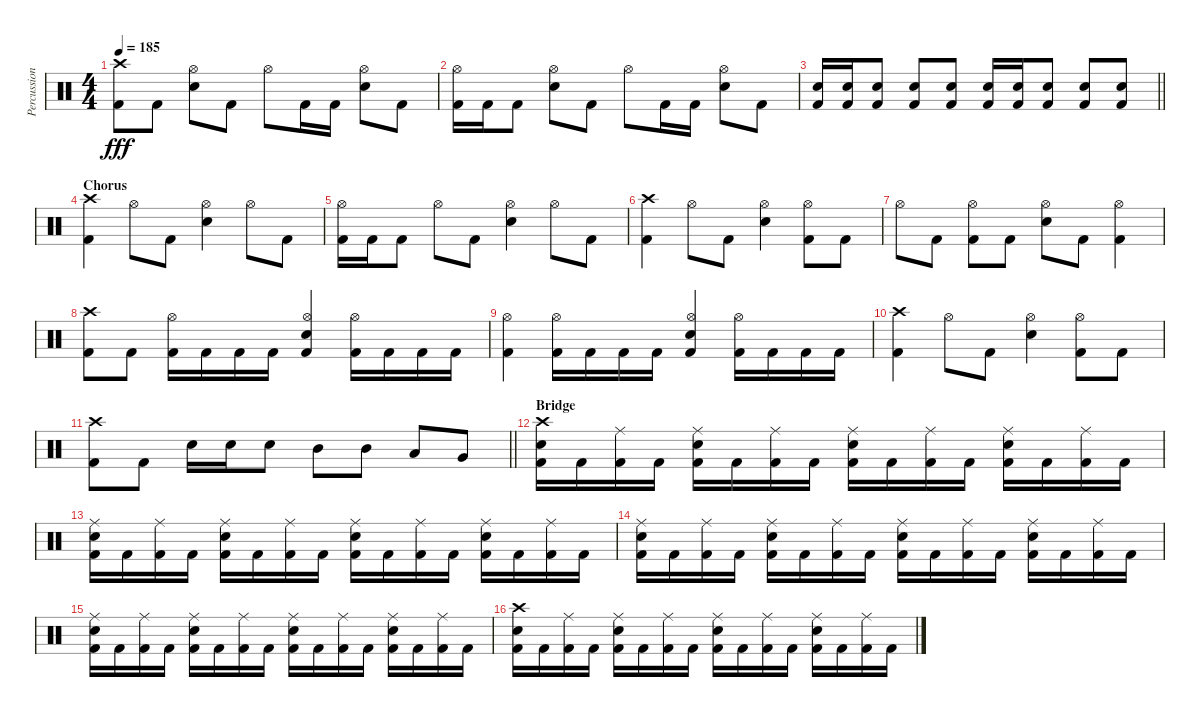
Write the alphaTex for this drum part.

\track ("Percussion" "Percussion") {instrument percussion}
\staff {score}
\articulation defaults
\ts (4 4)
\tempo 185
\clef neutral
\ks c
("Crash high (hit)" "Kick (hit) 2").8{dy fff} "Kick (hit) 2".8 ("Hi-Hat (open)" "Electric Snare (hit)").8 "Kick (hit) 2".8 "Hi-Hat (open)".8 "Kick (hit) 2".16 "Kick (hit) 2".16 ("Hi-Hat (open)" "Electric Snare (hit)").8 "Kick (hit) 2".8 |
("Hi-Hat (open)" "Kick (hit) 2").16 "Kick (hit) 2".16 "Kick (hit) 2".8 ("Hi-Hat (open)" "Electric Snare (hit)").8 "Kick (hit) 2".8 "Hi-Hat (open)".8 "Kick (hit) 2".16 "Kick (hit) 2".16 ("Hi-Hat (open)" "Electric Snare (hit)").8 "Kick (hit) 2".8 |
\barLineRight lightlight
("Electric Snare (hit)" "Kick (hit) 2").16 ("Electric Snare (hit)" "Kick (hit) 2").16 ("Electric Snare (hit)" "Kick (hit) 2").8 ("Electric Snare (hit)" "Kick (hit) 2").8 ("Electric Snare (hit)" "Kick (hit) 2").8 ("Electric Snare (hit)" "Kick (hit) 2").16 ("Electric Snare (hit)" "Kick (hit) 2").16 ("Electric Snare (hit)" "Kick (hit) 2").8 ("Electric Snare (hit)" "Kick (hit) 2").8 ("Electric Snare (hit)" "Kick (hit) 2").8 |
\section ("" "Chorus")
("Crash high (hit)" "Kick (hit) 2").4 "Hi-Hat (open)".8 "Kick (hit) 2".8 ("Hi-Hat (open)" "Electric Snare (hit)").4 "Hi-Hat (open)".8 "Kick (hit) 2".8 |
("Hi-Hat (open)" "Kick (hit) 2").16 "Kick (hit) 2".16 "Kick (hit) 2".8 "Hi-Hat (open)".8 "Kick (hit) 2".8 ("Hi-Hat (open)" "Electric Snare (hit)").4 "Hi-Hat (open)".8 "Kick (hit) 2".8 |
("Crash high (hit)" "Kick (hit) 2").4 "Hi-Hat (open)".8 "Kick (hit) 2".8 ("Hi-Hat (open)" "Electric Snare (hit)").4 ("Hi-Hat (open)" "Kick (hit) 2").8 "Kick (hit) 2".8 |
"Hi-Hat (open)".8 "Kick (hit) 2".8 ("Hi-Hat (open)" "Kick (hit) 2").8 "Kick (hit) 2".8 ("Hi-Hat (open)" "Electric Snare (hit)").8 "Kick (hit) 2".8 ("Hi-Hat (open)" "Kick (hit) 2").4 |
("Crash high (hit)" "Kick (hit) 2").8 "Kick (hit) 2".8 ("Hi-Hat (open)" "Kick (hit) 2").16 "Kick (hit) 2".16 "Kick (hit) 2".16 "Kick (hit) 2".16 ("Hi-Hat (open)" "Electric Snare (hit)" "Kick (hit) 2").4 ("Hi-Hat (open)" "Kick (hit) 2").16 "Kick (hit) 2".16 "Kick (hit) 2".16 "Kick (hit) 2".16 |
("Hi-Hat (open)" "Kick (hit) 2").4 ("Hi-Hat (open)" "Kick (hit) 2").16 "Kick (hit) 2".16 "Kick (hit) 2".16 "Kick (hit) 2".16 ("Hi-Hat (open)" "Electric Snare (hit)" "Kick (hit) 2").4 ("Hi-Hat (open)" "Kick (hit) 2").16 "Kick (hit) 2".16 "Kick (hit) 2".16 "Kick (hit) 2".16 |
("Crash high (hit)" "Kick (hit) 2").4 "Hi-Hat (open)".8 "Kick (hit) 2".8 ("Hi-Hat (open)" "Electric Snare (hit)").4 ("Hi-Hat (open)" "Kick (hit) 2").8 "Kick (hit) 2".8 |
\barLineRight lightlight
("Crash high (hit)" "Kick (hit) 2").8 "Kick (hit) 2".8 "Electric Snare (hit)".16 "Electric Snare (hit)".16 "Electric Snare (hit)".8 "Mid Tom (hit)".8 "Mid Tom (hit)".8 "Low Tom (hit)".8 "Very Low Tom (hit)".8 |
\section ("" "Bridge")
("Crash high (hit)" "Electric Snare (hit)" "Kick (hit) 2").16 "Kick (hit) 2".16 ("Ride (middle)" "Kick (hit) 2").16 "Kick (hit) 2".16 ("Ride (middle)" "Electric Snare (hit)" "Kick (hit) 2").16 "Kick (hit) 2".16 ("Ride (middle)" "Kick (hit) 2").16 "Kick (hit) 2".16 ("Ride (middle)" "Electric Snare (hit)" "Kick (hit) 2").16 "Kick (hit) 2".16 ("Ride (middle)" "Kick (hit) 2").16 "Kick (hit) 2".16 ("Ride (middle)" "Electric Snare (hit)" "Kick (hit) 2").16 "Kick (hit) 2".16 ("Ride (middle)" "Kick (hit) 2").16 "Kick (hit) 2".16 |
("Ride (middle)" "Electric Snare (hit)" "Kick (hit) 2").16 "Kick (hit) 2".16 ("Ride (middle)" "Kick (hit) 2").16 "Kick (hit) 2".16 ("Ride (middle)" "Electric Snare (hit)" "Kick (hit) 2").16 "Kick (hit) 2".16 ("Ride (middle)" "Kick (hit) 2").16 "Kick (hit) 2".16 ("Ride (middle)" "Electric Snare (hit)" "Kick (hit) 2").16 "Kick (hit) 2".16 ("Ride (middle)" "Kick (hit) 2").16 "Kick (hit) 2".16 ("Ride (middle)" "Electric Snare (hit)" "Kick (hit) 2").16 "Kick (hit) 2".16 ("Ride (middle)" "Kick (hit) 2").16 "Kick (hit) 2".16 |
("Ride (middle)" "Electric Snare (hit)" "Kick (hit) 2").16 "Kick (hit) 2".16 ("Ride (middle)" "Kick (hit) 2").16 "Kick (hit) 2".16 ("Ride (middle)" "Electric Snare (hit)" "Kick (hit) 2").16 "Kick (hit) 2".16 ("Ride (middle)" "Kick (hit) 2").16 "Kick (hit) 2".16 ("Ride (middle)" "Electric Snare (hit)" "Kick (hit) 2").16 "Kick (hit) 2".16 ("Ride (middle)" "Kick (hit) 2").16 "Kick (hit) 2".16 ("Ride (middle)" "Electric Snare (hit)" "Kick (hit) 2").16 "Kick (hit) 2".16 ("Ride (middle)" "Kick (hit) 2").16 "Kick (hit) 2".16 |
("Ride (middle)" "Electric Snare (hit)" "Kick (hit) 2").16 "Kick (hit) 2".16 ("Ride (middle)" "Kick (hit) 2").16 "Kick (hit) 2".16 ("Ride (middle)" "Electric Snare (hit)" "Kick (hit) 2").16 "Kick (hit) 2".16 ("Ride (middle)" "Kick (hit) 2").16 "Kick (hit) 2".16 ("Ride (middle)" "Electric Snare (hit)" "Kick (hit) 2").16 "Kick (hit) 2".16 ("Ride (middle)" "Kick (hit) 2").16 "Kick (hit) 2".16 ("Ride (middle)" "Electric Snare (hit)" "Kick (hit) 2").16 "Kick (hit) 2".16 ("Ride (middle)" "Kick (hit) 2").16 "Kick (hit) 2".16 |
("Crash high (hit)" "Electric Snare (hit)" "Kick (hit) 2").16 "Kick (hit) 2".16 ("Ride (middle)" "Kick (hit) 2").16 "Kick (hit) 2".16 ("Ride (middle)" "Electric Snare (hit)" "Kick (hit) 2").16 "Kick (hit) 2".16 ("Ride (middle)" "Kick (hit) 2").16 "Kick (hit) 2".16 ("Ride (middle)" "Electric Snare (hit)" "Kick (hit) 2").16 "Kick (hit) 2".16 ("Ride (middle)" "Kick (hit) 2").16 "Kick (hit) 2".16 ("Ride (middle)" "Electric Snare (hit)" "Kick (hit) 2").16 "Kick (hit) 2".16 ("Ride (middle)" "Kick (hit) 2").16 "Kick (hit) 2".16
